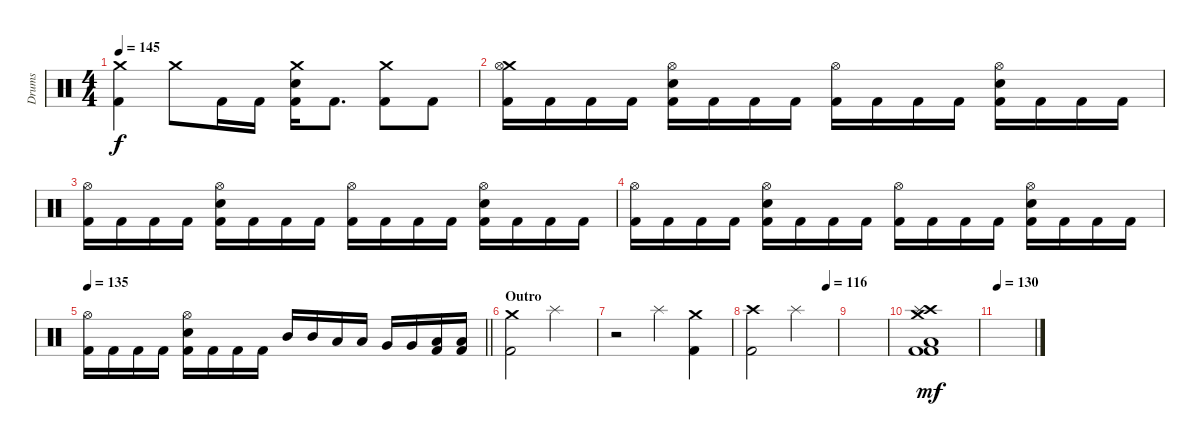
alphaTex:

\track ("Drums" "Drums") {instrument percussion}
\staff {score}
\articulation defaults
\ts (4 4)
\tempo 145
\clef neutral
\ks c
("Crash medium (hit)" "Kick (hit) 2").4{dy f} "Crash medium (hit)".8 "Kick (hit) 2".16 "Kick (hit) 2".16 ("Crash medium (hit)" "Electric Snare (hit)" "Kick (hit) 2").16 "Kick (hit) 2".8{d} ("Crash medium (hit)" "Kick (hit) 2").8 "Kick (hit) 2".8 |
("Crash medium (hit)" "Hi-Hat (open)" "Kick (hit) 2").16 "Kick (hit) 2".16 "Kick (hit) 2".16 "Kick (hit) 2".16 ("Hi-Hat (open)" "Electric Snare (hit)" "Kick (hit) 2").16 "Kick (hit) 2".16 "Kick (hit) 2".16 "Kick (hit) 2".16 ("Hi-Hat (open)" "Kick (hit) 2").16 "Kick (hit) 2".16 "Kick (hit) 2".16 "Kick (hit) 2".16 ("Hi-Hat (open)" "Electric Snare (hit)" "Kick (hit) 2").16 "Kick (hit) 2".16 "Kick (hit) 2".16 "Kick (hit) 2".16 |
("Hi-Hat (open)" "Kick (hit) 2").16 "Kick (hit) 2".16 "Kick (hit) 2".16 "Kick (hit) 2".16 ("Hi-Hat (open)" "Electric Snare (hit)" "Kick (hit) 2").16 "Kick (hit) 2".16 "Kick (hit) 2".16 "Kick (hit) 2".16 ("Hi-Hat (open)" "Kick (hit) 2").16 "Kick (hit) 2".16 "Kick (hit) 2".16 "Kick (hit) 2".16 ("Hi-Hat (open)" "Electric Snare (hit)" "Kick (hit) 2").16 "Kick (hit) 2".16 "Kick (hit) 2".16 "Kick (hit) 2".16 |
("Hi-Hat (open)" "Kick (hit) 2").16 "Kick (hit) 2".16 "Kick (hit) 2".16 "Kick (hit) 2".16 ("Hi-Hat (open)" "Electric Snare (hit)" "Kick (hit) 2").16 "Kick (hit) 2".16 "Kick (hit) 2".16 "Kick (hit) 2".16 ("Hi-Hat (open)" "Kick (hit) 2").16 "Kick (hit) 2".16 "Kick (hit) 2".16 "Kick (hit) 2".16 ("Hi-Hat (open)" "Electric Snare (hit)" "Kick (hit) 2").16 "Kick (hit) 2".16 "Kick (hit) 2".16 "Kick (hit) 2".16 |
\tempo 135
\barLineRight lightlight
("Hi-Hat (open)" "Kick (hit) 2").16 "Kick (hit) 2".16 "Kick (hit) 2".16 "Kick (hit) 2".16 ("Hi-Hat (open)" "Electric Snare (hit)" "Kick (hit) 2").16 "Kick (hit) 2".16 "Kick (hit) 2".16 "Kick (hit) 2".16 "Mid Tom (hit)".16 "Mid Tom (hit)".16 "Low Tom (hit)".16 "Low Tom (hit)".16 "Very Low Tom (hit)".16 "Very Low Tom (hit)".16 ("Low Floor Tom (hit)" "Kick (hit) 2").16 ("Low Floor Tom (hit)" "Kick (hit) 2").16 |
\section ("" "Outro")
("Crash medium (hit)" "Kick (hit) 2").2 "Splash (hit)".2 |
r.2 "Splash (hit)".4 ("Crash medium (hit)" "Kick (hit) 2").4 |
\tempo (116 0.875)
("Crash high (hit)" "Kick (hit) 2").2 "Splash (hit)".2 |
|
("Crash medium (hit)" "Crash high (hit)" "Splash (hit)" "Low Floor Tom (hit)" "Kick (hit) 2" "Kick (hit) 2").1{dy mf} |
\tempo 130
